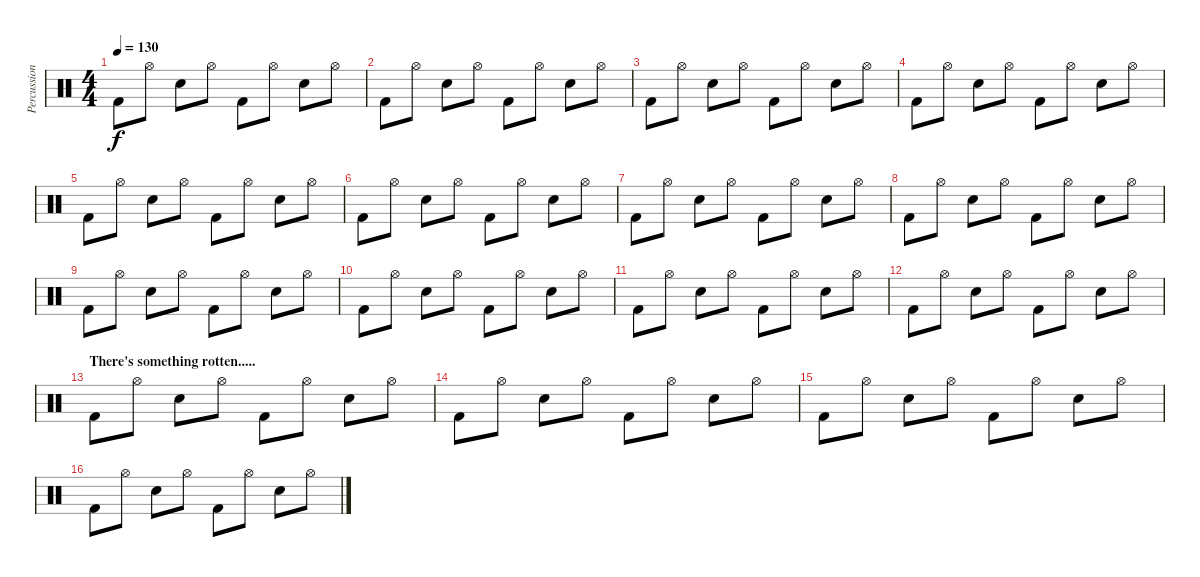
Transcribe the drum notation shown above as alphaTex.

\track ("Percussion" "Percussion") {instrument percussion}
\staff {score}
\articulation defaults
\ts (4 4)
\tempo 130
\clef neutral
\ks c "Kick (hit) 2".8{dy f} "Hi-Hat (open)".8 "Electric Snare (hit)".8 "Hi-Hat (open)".8 "Kick (hit) 2".8 "Hi-Hat (open)".8 "Electric Snare (hit)".8 "Hi-Hat (open)".8
|
"Kick (hit) 2".8 "Hi-Hat (open)".8 "Electric Snare (hit)".8 "Hi-Hat (open)".8 "Kick (hit) 2".8 "Hi-Hat (open)".8 "Electric Snare (hit)".8 "Hi-Hat (open)".8 |
"Kick (hit) 2".8 "Hi-Hat (open)".8 "Electric Snare (hit)".8 "Hi-Hat (open)".8 "Kick (hit) 2".8 "Hi-Hat (open)".8 "Electric Snare (hit)".8 "Hi-Hat (open)".8 |
"Kick (hit) 2".8 "Hi-Hat (open)".8 "Electric Snare (hit)".8 "Hi-Hat (open)".8 "Kick (hit) 2".8 "Hi-Hat (open)".8 "Electric Snare (hit)".8 "Hi-Hat (open)".8 |
"Kick (hit) 2".8 "Hi-Hat (open)".8 "Electric Snare (hit)".8 "Hi-Hat (open)".8 "Kick (hit) 2".8 "Hi-Hat (open)".8 "Electric Snare (hit)".8 "Hi-Hat (open)".8 |
"Kick (hit) 2".8 "Hi-Hat (open)".8 "Electric Snare (hit)".8 "Hi-Hat (open)".8 "Kick (hit) 2".8 "Hi-Hat (open)".8 "Electric Snare (hit)".8 "Hi-Hat (open)".8 |
"Kick (hit) 2".8 "Hi-Hat (open)".8 "Electric Snare (hit)".8 "Hi-Hat (open)".8 "Kick (hit) 2".8 "Hi-Hat (open)".8 "Electric Snare (hit)".8 "Hi-Hat (open)".8 |
"Kick (hit) 2".8 "Hi-Hat (open)".8 "Electric Snare (hit)".8 "Hi-Hat (open)".8 "Kick (hit) 2".8 "Hi-Hat (open)".8 "Electric Snare (hit)".8 "Hi-Hat (open)".8 |
"Kick (hit) 2".8 "Hi-Hat (open)".8 "Electric Snare (hit)".8 "Hi-Hat (open)".8 "Kick (hit) 2".8 "Hi-Hat (open)".8 "Electric Snare (hit)".8 "Hi-Hat (open)".8 |
"Kick (hit) 2".8 "Hi-Hat (open)".8 "Electric Snare (hit)".8 "Hi-Hat (open)".8 "Kick (hit) 2".8 "Hi-Hat (open)".8 "Electric Snare (hit)".8 "Hi-Hat (open)".8 |
"Kick (hit) 2".8 "Hi-Hat (open)".8 "Electric Snare (hit)".8 "Hi-Hat (open)".8 "Kick (hit) 2".8 "Hi-Hat (open)".8 "Electric Snare (hit)".8 "Hi-Hat (open)".8 |
"Kick (hit) 2".8 "Hi-Hat (open)".8 "Electric Snare (hit)".8 "Hi-Hat (open)".8 "Kick (hit) 2".8 "Hi-Hat (open)".8 "Electric Snare (hit)".8 "Hi-Hat (open)".8 |
\section ("" "There's something rotten.....")
"Kick (hit) 2".8 "Hi-Hat (open)".8 "Electric Snare (hit)".8 "Hi-Hat (open)".8 "Kick (hit) 2".8 "Hi-Hat (open)".8 "Electric Snare (hit)".8 "Hi-Hat (open)".8 |
"Kick (hit) 2".8 "Hi-Hat (open)".8 "Electric Snare (hit)".8 "Hi-Hat (open)".8 "Kick (hit) 2".8 "Hi-Hat (open)".8 "Electric Snare (hit)".8 "Hi-Hat (open)".8 |
"Kick (hit) 2".8 "Hi-Hat (open)".8 "Electric Snare (hit)".8 "Hi-Hat (open)".8 "Kick (hit) 2".8 "Hi-Hat (open)".8 "Electric Snare (hit)".8 "Hi-Hat (open)".8 |
"Kick (hit) 2".8 "Hi-Hat (open)".8 "Electric Snare (hit)".8 "Hi-Hat (open)".8 "Kick (hit) 2".8 "Hi-Hat (open)".8 "Electric Snare (hit)".8 "Hi-Hat (open)".8
